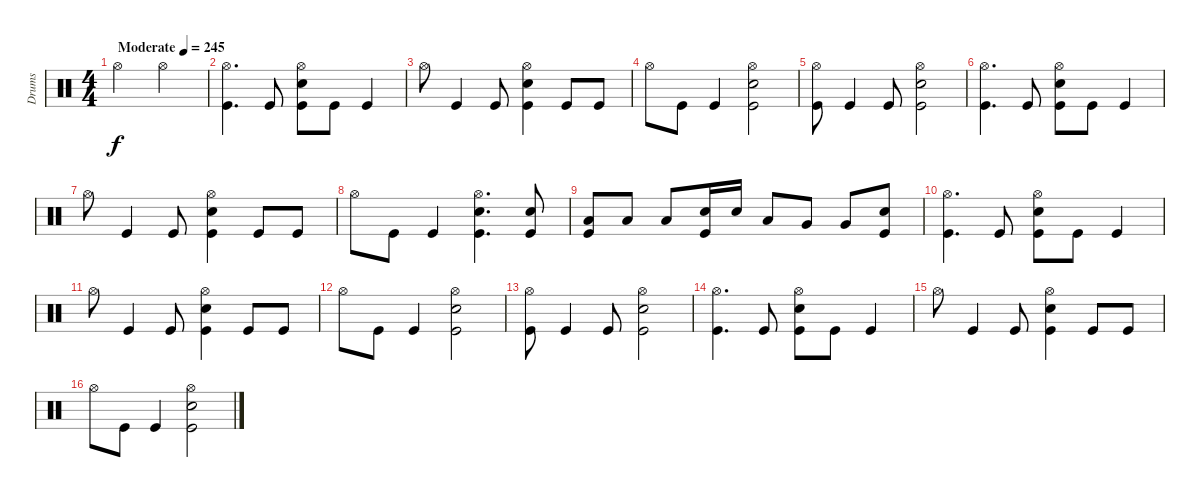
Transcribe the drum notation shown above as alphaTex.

\track ("Drums" "Drums") {instrument percussion}
\staff {score}
\articulation defaults
\ts (4 4)
\tempo (245 "Moderate")
\clef neutral
\ks c "Hi-Hat (open)".2{dy f} "Hi-Hat (open)".2
|
("Hi-Hat (open)" "Kick (hit)").4{d} "Kick (hit)".8 ("Hi-Hat (open)" "Electric Snare (hit)" "Kick (hit)").8 "Kick (hit)".8 "Kick (hit)".4 |
"Hi-Hat (open)".8 "Kick (hit)".4 "Kick (hit)".8 ("Hi-Hat (open)" "Electric Snare (hit)" "Kick (hit)").4 "Kick (hit)".8 "Kick (hit)".8 |
"Hi-Hat (open)".8 "Kick (hit)".8 "Kick (hit)".4 ("Hi-Hat (open)" "Electric Snare (hit)" "Kick (hit)").2 |
("Hi-Hat (open)" "Kick (hit)").8 "Kick (hit)".4 "Kick (hit)".8 ("Hi-Hat (open)" "Electric Snare (hit)" "Kick (hit)").2 |
("Hi-Hat (open)" "Kick (hit)").4{d} "Kick (hit)".8 ("Hi-Hat (open)" "Electric Snare (hit)" "Kick (hit)").8 "Kick (hit)".8 "Kick (hit)".4 |
"Hi-Hat (open)".8 "Kick (hit)".4 "Kick (hit)".8 ("Hi-Hat (open)" "Electric Snare (hit)" "Kick (hit)").4 "Kick (hit)".8 "Kick (hit)".8 |
"Hi-Hat (open)".8 "Kick (hit)".8 "Kick (hit)".4 ("Hi-Hat (open)" "Electric Snare (hit)" "Kick (hit)").4{d} ("Electric Snare (hit)" "Kick (hit)").8 |
("Low Tom (hit)" "Kick (hit)").8 "Low Tom (hit)".8 "Low Tom (hit)".8 ("Electric Snare (hit)" "Kick (hit)").16 "Electric Snare (hit)".16 "Low Tom (hit)".8 "Very Low Tom (hit)".8 "Very Low Tom (hit)".8 ("Electric Snare (hit)" "Kick (hit)").8 |
("Hi-Hat (open)" "Kick (hit)").4{d} "Kick (hit)".8 ("Hi-Hat (open)" "Electric Snare (hit)" "Kick (hit)").8 "Kick (hit)".8 "Kick (hit)".4 |
"Hi-Hat (open)".8 "Kick (hit)".4 "Kick (hit)".8 ("Hi-Hat (open)" "Electric Snare (hit)" "Kick (hit)").4 "Kick (hit)".8 "Kick (hit)".8 |
"Hi-Hat (open)".8 "Kick (hit)".8 "Kick (hit)".4 ("Hi-Hat (open)" "Electric Snare (hit)" "Kick (hit)").2 |
("Hi-Hat (open)" "Kick (hit)").8 "Kick (hit)".4 "Kick (hit)".8 ("Hi-Hat (open)" "Electric Snare (hit)" "Kick (hit)").2 |
("Hi-Hat (open)" "Kick (hit)").4{d} "Kick (hit)".8 ("Hi-Hat (open)" "Electric Snare (hit)" "Kick (hit)").8 "Kick (hit)".8 "Kick (hit)".4 |
"Hi-Hat (open)".8 "Kick (hit)".4 "Kick (hit)".8 ("Hi-Hat (open)" "Electric Snare (hit)" "Kick (hit)").4 "Kick (hit)".8 "Kick (hit)".8 |
"Hi-Hat (open)".8 "Kick (hit)".8 "Kick (hit)".4 ("Hi-Hat (open)" "Electric Snare (hit)" "Kick (hit)").2
